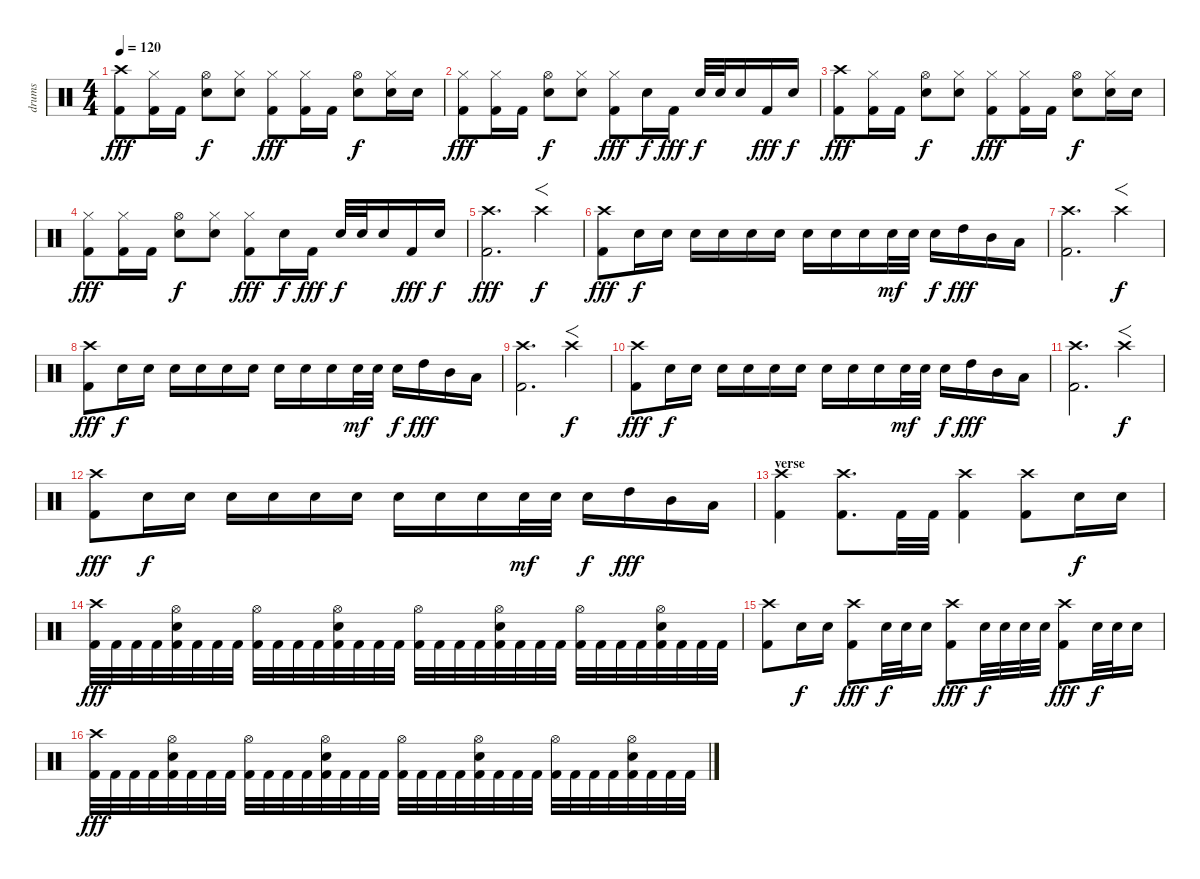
\track ("drums" "drums") {instrument percussion}
\staff {score}
\articulation defaults
\ts (4 4)
\tempo 120
\clef neutral
\ks c
("Crash high (hit)" "Kick (hit) 2").8{dy fff} ("Hi-Hat (closed)" "Kick (hit) 2").16 "Kick (hit) 2".16 ("Hi-Hat (open)" "Snare (hit) 2").8{dy f} ("Hi-Hat (closed)" "Snare (hit) 2").8 ("Hi-Hat (closed)" "Kick (hit) 2").8{dy fff} ("Hi-Hat (closed)" "Kick (hit) 2").16 "Kick (hit) 2".16 ("Hi-Hat (open)" "Snare (hit) 2").8{dy f} ("Hi-Hat (closed)" "Snare (hit) 2").16 "Snare (hit) 2".16 |
("Hi-Hat (closed)" "Kick (hit) 2").8{dy fff} ("Hi-Hat (closed)" "Kick (hit) 2").16 "Kick (hit) 2".16 ("Hi-Hat (open)" "Snare (hit) 2").8{dy f} ("Hi-Hat (closed)" "Snare (hit) 2").8 ("Hi-Hat (closed)" "Kick (hit) 2").8{dy fff} "Snare (hit) 2".16{dy f} "Kick (hit) 2".16{dy fff} "Snare (hit) 2".32{dy f} "Snare (hit) 2".32 "Snare (hit) 2".16 "Kick (hit) 2".16{dy fff} "Snare (hit) 2".16{dy f} |
("Crash high (hit)" "Kick (hit) 2").8{dy fff} ("Hi-Hat (closed)" "Kick (hit) 2").16 "Kick (hit) 2".16 ("Hi-Hat (open)" "Snare (hit) 2").8{dy f} ("Hi-Hat (closed)" "Snare (hit) 2").8 ("Hi-Hat (closed)" "Kick (hit) 2").8{dy fff} ("Hi-Hat (closed)" "Kick (hit) 2").16 "Kick (hit) 2".16 ("Hi-Hat (open)" "Snare (hit) 2").8{dy f} ("Hi-Hat (closed)" "Snare (hit) 2").16 "Snare (hit) 2".16 |
("Hi-Hat (closed)" "Kick (hit) 2").8{dy fff} ("Hi-Hat (closed)" "Kick (hit) 2").16 "Kick (hit) 2".16 ("Hi-Hat (open)" "Snare (hit) 2").8{dy f} ("Hi-Hat (closed)" "Snare (hit) 2").8 ("Hi-Hat (closed)" "Kick (hit) 2").8{dy fff} "Snare (hit) 2".16{dy f} "Kick (hit) 2".16{dy fff} "Snare (hit) 2".32{dy f} "Snare (hit) 2".32 "Snare (hit) 2".16 "Kick (hit) 2".16{dy fff} "Snare (hit) 2".16{dy f} |
("Crash high (hit)" "Kick (hit) 2").2{d dy fff} "Crash high (hit)".4{f dy f} |
("Crash high (hit)" "Kick (hit) 2").8{dy fff} "Snare (hit) 2".16{dy f} "Snare (hit) 2".16 "Snare (hit) 2".16 "Snare (hit) 2".16 "Snare (hit) 2".16 "Snare (hit) 2".16 "Snare (hit) 2".16 "Snare (hit) 2".16 "Snare (hit) 2".16 "Snare (hit) 2".32{dy mf} "Snare (hit) 2".32 "Snare (hit) 2".16{dy f} "High Tom (hit)".16{dy fff} "Mid Tom (hit)".16 "Low Tom (hit)".16 |
("Crash high (hit)" "Kick (hit) 2").2{d} "Crash high (hit)".4{f dy f} |
("Crash high (hit)" "Kick (hit) 2").8{dy fff} "Snare (hit) 2".16{dy f} "Snare (hit) 2".16 "Snare (hit) 2".16 "Snare (hit) 2".16 "Snare (hit) 2".16 "Snare (hit) 2".16 "Snare (hit) 2".16 "Snare (hit) 2".16 "Snare (hit) 2".16 "Snare (hit) 2".32{dy mf} "Snare (hit) 2".32 "Snare (hit) 2".16{dy f} "High Tom (hit)".16{dy fff} "Mid Tom (hit)".16 "Low Tom (hit)".16 |
("Crash high (hit)" "Kick (hit) 2").2{d} "Crash high (hit)".4{f dy f} |
("Crash high (hit)" "Kick (hit) 2").8{dy fff} "Snare (hit) 2".16{dy f} "Snare (hit) 2".16 "Snare (hit) 2".16 "Snare (hit) 2".16 "Snare (hit) 2".16 "Snare (hit) 2".16 "Snare (hit) 2".16 "Snare (hit) 2".16 "Snare (hit) 2".16 "Snare (hit) 2".32{dy mf} "Snare (hit) 2".32 "Snare (hit) 2".16{dy f} "High Tom (hit)".16{dy fff} "Mid Tom (hit)".16 "Low Tom (hit)".16 |
("Crash high (hit)" "Kick (hit) 2").2{d} "Crash high (hit)".4{f dy f} |
("Crash high (hit)" "Kick (hit) 2").8{dy fff} "Snare (hit) 2".16{dy f} "Snare (hit) 2".16 "Snare (hit) 2".16 "Snare (hit) 2".16 "Snare (hit) 2".16 "Snare (hit) 2".16 "Snare (hit) 2".16 "Snare (hit) 2".16 "Snare (hit) 2".16 "Snare (hit) 2".32{dy mf} "Snare (hit) 2".32 "Snare (hit) 2".16{dy f} "High Tom (hit)".16{dy fff} "Mid Tom (hit)".16 "Low Tom (hit)".16 |
\section ("" "verse")
("Crash high (hit)" "Kick (hit) 2").4 ("Crash high (hit)" "Kick (hit) 2").8{d} "Kick (hit) 2".32 "Kick (hit) 2".32 ("Crash high (hit)" "Kick (hit) 2").4 ("Crash high (hit)" "Kick (hit) 2").8 "Snare (hit) 2".16{dy f} "Snare (hit) 2".16 |
("Crash high (hit)" "Kick (hit) 2").32{dy fff} "Kick (hit) 2".32 "Kick (hit) 2".32 "Kick (hit) 2".32 ("Hi-Hat (open)" "Snare (hit) 2" "Kick (hit) 2").32 "Kick (hit) 2".32 "Kick (hit) 2".32 "Kick (hit) 2".32 ("Hi-Hat (open)" "Kick (hit) 2").32 "Kick (hit) 2".32 "Kick (hit) 2".32 "Kick (hit) 2".32 ("Hi-Hat (open)" "Snare (hit) 2" "Kick (hit) 2").32 "Kick (hit) 2".32 "Kick (hit) 2".32 "Kick (hit) 2".32 ("Hi-Hat (open)" "Kick (hit) 2").32 "Kick (hit) 2".32 "Kick (hit) 2".32 "Kick (hit) 2".32 ("Hi-Hat (open)" "Snare (hit) 2" "Kick (hit) 2").32 "Kick (hit) 2".32 "Kick (hit) 2".32 "Kick (hit) 2".32 ("Hi-Hat (open)" "Kick (hit) 2").32 "Kick (hit) 2".32 "Kick (hit) 2".32 "Kick (hit) 2".32 ("Hi-Hat (open)" "Snare (hit) 2" "Kick (hit) 2").32 "Kick (hit) 2".32 "Kick (hit) 2".32 "Kick (hit) 2".32 |
("Crash high (hit)" "Kick (hit) 2").8 "Snare (hit) 2".16{dy f} "Snare (hit) 2".16 ("Crash high (hit)" "Kick (hit) 2").8{dy fff} "Snare (hit) 2".32{dy f} "Snare (hit) 2".32 "Snare (hit) 2".16 ("Crash high (hit)" "Kick (hit) 2").8{dy fff} "Snare (hit) 2".32{dy f} "Snare (hit) 2".32 "Snare (hit) 2".32 "Snare (hit) 2".32 ("Crash high (hit)" "Kick (hit) 2").8{dy fff} "Snare (hit) 2".32{dy f} "Snare (hit) 2".32 "Snare (hit) 2".16 |
("Crash high (hit)" "Kick (hit) 2").32{dy fff} "Kick (hit) 2".32 "Kick (hit) 2".32 "Kick (hit) 2".32 ("Hi-Hat (open)" "Snare (hit) 2" "Kick (hit) 2").32 "Kick (hit) 2".32 "Kick (hit) 2".32 "Kick (hit) 2".32 ("Hi-Hat (open)" "Kick (hit) 2").32 "Kick (hit) 2".32 "Kick (hit) 2".32 "Kick (hit) 2".32 ("Hi-Hat (open)" "Snare (hit) 2" "Kick (hit) 2").32 "Kick (hit) 2".32 "Kick (hit) 2".32 "Kick (hit) 2".32 ("Hi-Hat (open)" "Kick (hit) 2").32 "Kick (hit) 2".32 "Kick (hit) 2".32 "Kick (hit) 2".32 ("Hi-Hat (open)" "Snare (hit) 2" "Kick (hit) 2").32 "Kick (hit) 2".32 "Kick (hit) 2".32 "Kick (hit) 2".32 ("Hi-Hat (open)" "Kick (hit) 2").32 "Kick (hit) 2".32 "Kick (hit) 2".32 "Kick (hit) 2".32 ("Hi-Hat (open)" "Snare (hit) 2" "Kick (hit) 2").32 "Kick (hit) 2".32 "Kick (hit) 2".32 "Kick (hit) 2".32
